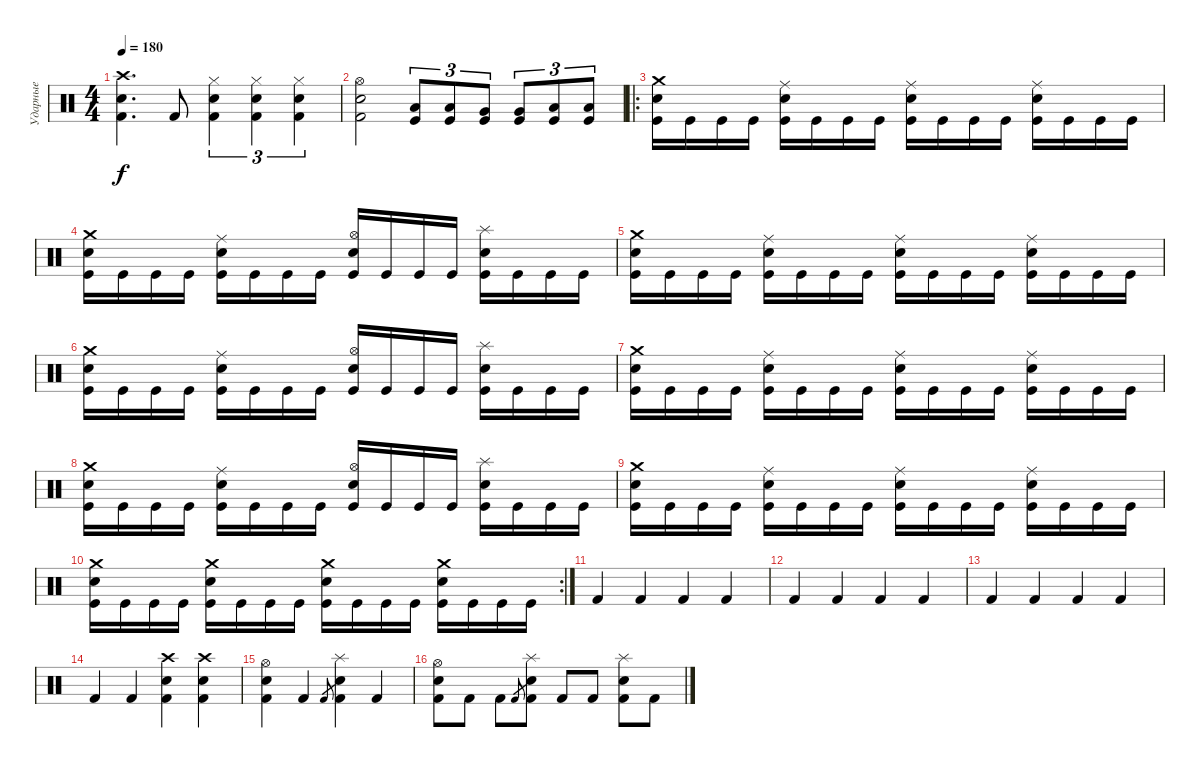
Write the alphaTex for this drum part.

\track ("Ударные" "Ударные") {instrument percussion}
\staff {score}
\articulation defaults
\ts (4 4)
\tempo 180
\clef neutral
\ks c
("Crash high (hit)" "Electric Snare (hit)" "Kick (hit) 2").4{d dy f} "Kick (hit) 2".8 ("Hi-Hat (closed)" "Electric Snare (hit)" "Kick (hit) 2").4{tu (3 2)} ("Hi-Hat (closed)" "Electric Snare (hit)" "Kick (hit) 2").4{tu (3 2)} ("Hi-Hat (closed)" "Electric Snare (hit)" "Kick (hit) 2").4{tu (3 2)} |
("Hi-Hat (open)" "Electric Snare (hit)" "Kick (hit) 2").2 ("Low Tom (hit)" "Kick (hit)").8{tu (3 2)} ("Low Tom (hit)" "Kick (hit)").8{tu (3 2)} ("Very Low Tom (hit)" "Kick (hit)").8{tu (3 2)} ("Very Low Tom (hit)" "Kick (hit)").8{tu (3 2)} ("Low Floor Tom (hit)" "Kick (hit)").8{tu (3 2)} ("Low Floor Tom (hit)" "Kick (hit)").8{tu (3 2)} |
\ro
("Crash medium (hit)" "Electric Snare (hit)" "Kick (hit)").16 "Kick (hit)".16 "Kick (hit)".16 "Kick (hit)".16 ("Ride (middle)" "Electric Snare (hit)" "Kick (hit)").16 "Kick (hit)".16 "Kick (hit)".16 "Kick (hit)".16 ("Ride (middle)" "Electric Snare (hit)" "Kick (hit)").16 "Kick (hit)".16 "Kick (hit)".16 "Kick (hit)".16 ("Ride (middle)" "Electric Snare (hit)" "Kick (hit)").16 "Kick (hit)".16 "Kick (hit)".16 "Kick (hit)".16 |
("Crash medium (hit)" "Electric Snare (hit)" "Kick (hit)").16 "Kick (hit)".16 "Kick (hit)".16 "Kick (hit)".16 ("Ride (middle)" "Electric Snare (hit)" "Kick (hit)").16 "Kick (hit)".16 "Kick (hit)".16 "Kick (hit)".16 ("Hi-Hat (open)" "Electric Snare (hit)" "Kick (hit)").16 "Kick (hit)".16 "Kick (hit)".16 "Kick (hit)".16 ("Splash (hit)" "Electric Snare (hit)" "Kick (hit)").16 "Kick (hit)".16 "Kick (hit)".16 "Kick (hit)".16 |
("Crash medium (hit)" "Electric Snare (hit)" "Kick (hit)").16 "Kick (hit)".16 "Kick (hit)".16 "Kick (hit)".16 ("Ride (middle)" "Electric Snare (hit)" "Kick (hit)").16 "Kick (hit)".16 "Kick (hit)".16 "Kick (hit)".16 ("Ride (middle)" "Electric Snare (hit)" "Kick (hit)").16 "Kick (hit)".16 "Kick (hit)".16 "Kick (hit)".16 ("Ride (middle)" "Electric Snare (hit)" "Kick (hit)").16 "Kick (hit)".16 "Kick (hit)".16 "Kick (hit)".16 |
("Crash medium (hit)" "Electric Snare (hit)" "Kick (hit)").16 "Kick (hit)".16 "Kick (hit)".16 "Kick (hit)".16 ("Ride (middle)" "Electric Snare (hit)" "Kick (hit)").16 "Kick (hit)".16 "Kick (hit)".16 "Kick (hit)".16 ("Hi-Hat (open)" "Electric Snare (hit)" "Kick (hit)").16 "Kick (hit)".16 "Kick (hit)".16 "Kick (hit)".16 ("Splash (hit)" "Electric Snare (hit)" "Kick (hit)").16 "Kick (hit)".16 "Kick (hit)".16 "Kick (hit)".16 |
("Crash medium (hit)" "Electric Snare (hit)" "Kick (hit)").16 "Kick (hit)".16 "Kick (hit)".16 "Kick (hit)".16 ("Ride (middle)" "Electric Snare (hit)" "Kick (hit)").16 "Kick (hit)".16 "Kick (hit)".16 "Kick (hit)".16 ("Ride (middle)" "Electric Snare (hit)" "Kick (hit)").16 "Kick (hit)".16 "Kick (hit)".16 "Kick (hit)".16 ("Ride (middle)" "Electric Snare (hit)" "Kick (hit)").16 "Kick (hit)".16 "Kick (hit)".16 "Kick (hit)".16 |
("Crash medium (hit)" "Electric Snare (hit)" "Kick (hit)").16 "Kick (hit)".16 "Kick (hit)".16 "Kick (hit)".16 ("Ride (middle)" "Electric Snare (hit)" "Kick (hit)").16 "Kick (hit)".16 "Kick (hit)".16 "Kick (hit)".16 ("Hi-Hat (open)" "Electric Snare (hit)" "Kick (hit)").16 "Kick (hit)".16 "Kick (hit)".16 "Kick (hit)".16 ("Splash (hit)" "Electric Snare (hit)" "Kick (hit)").16 "Kick (hit)".16 "Kick (hit)".16 "Kick (hit)".16 |
("Crash medium (hit)" "Electric Snare (hit)" "Kick (hit)").16 "Kick (hit)".16 "Kick (hit)".16 "Kick (hit)".16 ("Ride (middle)" "Electric Snare (hit)" "Kick (hit)").16 "Kick (hit)".16 "Kick (hit)".16 "Kick (hit)".16 ("Ride (middle)" "Electric Snare (hit)" "Kick (hit)").16 "Kick (hit)".16 "Kick (hit)".16 "Kick (hit)".16 ("Ride (middle)" "Electric Snare (hit)" "Kick (hit)").16 "Kick (hit)".16 "Kick (hit)".16 "Kick (hit)".16 |
\rc 2
("Crash medium (hit)" "Electric Snare (hit)" "Kick (hit)").16 "Kick (hit)".16 "Kick (hit)".16 "Kick (hit)".16 ("Crash medium (hit)" "Electric Snare (hit)" "Kick (hit)").16 "Kick (hit)".16 "Kick (hit)".16 "Kick (hit)".16 ("Crash medium (hit)" "Electric Snare (hit)" "Kick (hit)").16 "Kick (hit)".16 "Kick (hit)".16 "Kick (hit)".16 ("Crash medium (hit)" "Electric Snare (hit)" "Kick (hit)").16 "Kick (hit)".16 "Kick (hit)".16 "Kick (hit)".16 |
"Kick (hit) 2".4 "Kick (hit) 2".4 "Kick (hit) 2".4 "Kick (hit) 2".4 |
"Kick (hit) 2".4 "Kick (hit) 2".4 "Kick (hit) 2".4 "Kick (hit) 2".4 |
"Kick (hit) 2".4 "Kick (hit) 2".4 "Kick (hit) 2".4 "Kick (hit) 2".4 |
"Kick (hit) 2".4 "Kick (hit) 2".4 ("Crash high (hit)" "Electric Snare (hit)" "Kick (hit) 2").4 ("Crash high (hit)" "Electric Snare (hit)" "Kick (hit) 2").4 |
("Hi-Hat (open)" "Electric Snare (hit)" "Kick (hit) 2").4 "Kick (hit) 2".4 "Kick (hit) 2".8{gr} ("Splash (hit)" "Electric Snare (hit)" "Kick (hit) 2").4 "Kick (hit) 2".4 |
("Hi-Hat (open)" "Electric Snare (hit)" "Kick (hit) 2").8 "Kick (hit) 2".8 "Kick (hit) 2".8 "Kick (hit) 2".8{gr} ("Splash (hit)" "Electric Snare (hit)" "Kick (hit) 2").8 "Kick (hit) 2".8 "Kick (hit) 2".8 ("Splash (hit)" "Electric Snare (hit)" "Kick (hit) 2").8 "Kick (hit) 2".8
